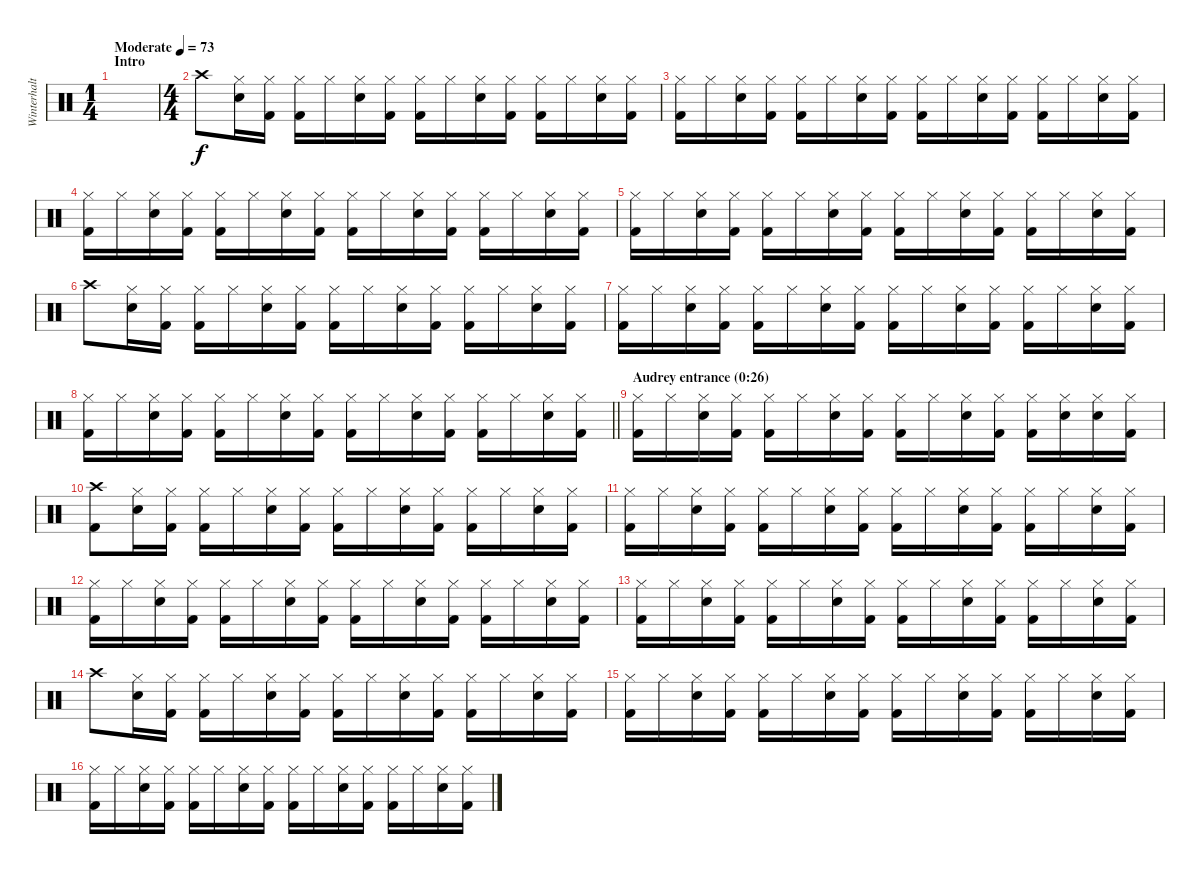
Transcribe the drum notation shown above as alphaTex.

\track ("Winterhalten" "Winterhalt") {instrument percussion}
\staff {score}
\articulation defaults
\ts (1 4)
\section ("" "Intro")
\tempo (73 "Moderate")
\clef neutral
\ks c
|
\ts (4 4)
"Crash high (hit)".8 ("Hi-Hat (closed)" "Snare (hit) 2").16 ("Kick (hit) 2" "Hi-Hat (closed)").16 ("Kick (hit) 2" "Hi-Hat (closed)").16 "Hi-Hat (closed)".16 ("Hi-Hat (closed)" "Snare (hit) 2").16 ("Kick (hit) 2" "Hi-Hat (closed)").16 ("Kick (hit) 2" "Hi-Hat (closed)").16 "Hi-Hat (closed)".16 ("Hi-Hat (closed)" "Snare (hit) 2").16 ("Kick (hit) 2" "Hi-Hat (closed)").16 ("Kick (hit) 2" "Hi-Hat (closed)").16 "Hi-Hat (closed)".16 ("Hi-Hat (closed)" "Snare (hit) 2").16 ("Kick (hit) 2" "Hi-Hat (closed)").16 |
("Kick (hit) 2" "Hi-Hat (closed)").16 "Hi-Hat (closed)".16 ("Hi-Hat (closed)" "Snare (hit) 2").16 ("Kick (hit) 2" "Hi-Hat (closed)").16 ("Kick (hit) 2" "Hi-Hat (closed)").16 "Hi-Hat (closed)".16 ("Hi-Hat (closed)" "Snare (hit) 2").16 ("Kick (hit) 2" "Hi-Hat (closed)").16 ("Kick (hit) 2" "Hi-Hat (closed)").16 "Hi-Hat (closed)".16 ("Hi-Hat (closed)" "Snare (hit) 2").16 ("Kick (hit) 2" "Hi-Hat (closed)").16 ("Kick (hit) 2" "Hi-Hat (closed)").16 "Hi-Hat (closed)".16 ("Hi-Hat (closed)" "Snare (hit) 2").16 ("Kick (hit) 2" "Hi-Hat (closed)").16 |
("Kick (hit) 2" "Hi-Hat (closed)").16 "Hi-Hat (closed)".16 ("Hi-Hat (closed)" "Snare (hit) 2").16 ("Kick (hit) 2" "Hi-Hat (closed)").16 ("Kick (hit) 2" "Hi-Hat (closed)").16 "Hi-Hat (closed)".16 ("Hi-Hat (closed)" "Snare (hit) 2").16 ("Kick (hit) 2" "Hi-Hat (closed)").16 ("Kick (hit) 2" "Hi-Hat (closed)").16 "Hi-Hat (closed)".16 ("Hi-Hat (closed)" "Snare (hit) 2").16 ("Kick (hit) 2" "Hi-Hat (closed)").16 ("Kick (hit) 2" "Hi-Hat (closed)").16 "Hi-Hat (closed)".16 ("Hi-Hat (closed)" "Snare (hit) 2").16 ("Kick (hit) 2" "Hi-Hat (closed)").16 |
("Kick (hit) 2" "Hi-Hat (closed)").16 "Hi-Hat (closed)".16 ("Hi-Hat (closed)" "Snare (hit) 2").16 ("Kick (hit) 2" "Hi-Hat (closed)").16 ("Kick (hit) 2" "Hi-Hat (closed)").16 "Hi-Hat (closed)".16 ("Hi-Hat (closed)" "Snare (hit) 2").16 ("Kick (hit) 2" "Hi-Hat (closed)").16 ("Kick (hit) 2" "Hi-Hat (closed)").16 "Hi-Hat (closed)".16 ("Hi-Hat (closed)" "Snare (hit) 2").16 ("Kick (hit) 2" "Hi-Hat (closed)").16 ("Kick (hit) 2" "Hi-Hat (closed)").16 "Hi-Hat (closed)".16 ("Hi-Hat (closed)" "Snare (hit) 2").16 ("Kick (hit) 2" "Hi-Hat (closed)").16 |
"Crash high (hit)".8 ("Hi-Hat (closed)" "Snare (hit) 2").16 ("Kick (hit) 2" "Hi-Hat (closed)").16 ("Kick (hit) 2" "Hi-Hat (closed)").16 "Hi-Hat (closed)".16 ("Hi-Hat (closed)" "Snare (hit) 2").16 ("Kick (hit) 2" "Hi-Hat (closed)").16 ("Kick (hit) 2" "Hi-Hat (closed)").16 "Hi-Hat (closed)".16 ("Hi-Hat (closed)" "Snare (hit) 2").16 ("Kick (hit) 2" "Hi-Hat (closed)").16 ("Kick (hit) 2" "Hi-Hat (closed)").16 "Hi-Hat (closed)".16 ("Hi-Hat (closed)" "Snare (hit) 2").16 ("Kick (hit) 2" "Hi-Hat (closed)").16 |
("Kick (hit) 2" "Hi-Hat (closed)").16 "Hi-Hat (closed)".16 ("Hi-Hat (closed)" "Snare (hit) 2").16 ("Kick (hit) 2" "Hi-Hat (closed)").16 ("Kick (hit) 2" "Hi-Hat (closed)").16 "Hi-Hat (closed)".16 ("Hi-Hat (closed)" "Snare (hit) 2").16 ("Kick (hit) 2" "Hi-Hat (closed)").16 ("Kick (hit) 2" "Hi-Hat (closed)").16 "Hi-Hat (closed)".16 ("Hi-Hat (closed)" "Snare (hit) 2").16 ("Kick (hit) 2" "Hi-Hat (closed)").16 ("Kick (hit) 2" "Hi-Hat (closed)").16 "Hi-Hat (closed)".16 ("Hi-Hat (closed)" "Snare (hit) 2").16 ("Kick (hit) 2" "Hi-Hat (closed)").16 |
\barLineRight lightlight
("Kick (hit) 2" "Hi-Hat (closed)").16 "Hi-Hat (closed)".16 ("Hi-Hat (closed)" "Snare (hit) 2").16 ("Kick (hit) 2" "Hi-Hat (closed)").16 ("Kick (hit) 2" "Hi-Hat (closed)").16 "Hi-Hat (closed)".16 ("Hi-Hat (closed)" "Snare (hit) 2").16 ("Kick (hit) 2" "Hi-Hat (closed)").16 ("Kick (hit) 2" "Hi-Hat (closed)").16 "Hi-Hat (closed)".16 ("Hi-Hat (closed)" "Snare (hit) 2").16 ("Kick (hit) 2" "Hi-Hat (closed)").16 ("Kick (hit) 2" "Hi-Hat (closed)").16 "Hi-Hat (closed)".16 ("Hi-Hat (closed)" "Snare (hit) 2").16 ("Kick (hit) 2" "Hi-Hat (closed)").16 |
\section ("" "Audrey entrance (0:26)")
("Kick (hit) 2" "Hi-Hat (closed)").16 "Hi-Hat (closed)".16 ("Hi-Hat (closed)" "Snare (hit) 2").16 ("Kick (hit) 2" "Hi-Hat (closed)").16 ("Kick (hit) 2" "Hi-Hat (closed)").16 "Hi-Hat (closed)".16 ("Hi-Hat (closed)" "Snare (hit) 2").16 ("Kick (hit) 2" "Hi-Hat (closed)").16 ("Kick (hit) 2" "Hi-Hat (closed)").16 "Hi-Hat (closed)".16 ("Hi-Hat (closed)" "Snare (hit) 2").16 ("Kick (hit) 2" "Hi-Hat (closed)").16 ("Kick (hit) 2" "Hi-Hat (closed)").16 ("Hi-Hat (closed)" "Snare (hit) 2").16 ("Hi-Hat (closed)" "Snare (hit) 2").16 ("Kick (hit) 2" "Hi-Hat (closed)").16 |
("Kick (hit) 2" "Crash high (hit)").8 ("Hi-Hat (closed)" "Snare (hit) 2").16 ("Kick (hit) 2" "Hi-Hat (closed)").16 ("Kick (hit) 2" "Hi-Hat (closed)").16 "Hi-Hat (closed)".16 ("Hi-Hat (closed)" "Snare (hit) 2").16 ("Kick (hit) 2" "Hi-Hat (closed)").16 ("Kick (hit) 2" "Hi-Hat (closed)").16 "Hi-Hat (closed)".16 ("Hi-Hat (closed)" "Snare (hit) 2").16 ("Kick (hit) 2" "Hi-Hat (closed)").16 ("Kick (hit) 2" "Hi-Hat (closed)").16 "Hi-Hat (closed)".16 ("Hi-Hat (closed)" "Snare (hit) 2").16 ("Kick (hit) 2" "Hi-Hat (closed)").16 |
("Kick (hit) 2" "Hi-Hat (closed)").16 "Hi-Hat (closed)".16 ("Hi-Hat (closed)" "Snare (hit) 2").16 ("Kick (hit) 2" "Hi-Hat (closed)").16 ("Kick (hit) 2" "Hi-Hat (closed)").16 "Hi-Hat (closed)".16 ("Hi-Hat (closed)" "Snare (hit) 2").16 ("Kick (hit) 2" "Hi-Hat (closed)").16 ("Kick (hit) 2" "Hi-Hat (closed)").16 "Hi-Hat (closed)".16 ("Hi-Hat (closed)" "Snare (hit) 2").16 ("Kick (hit) 2" "Hi-Hat (closed)").16 ("Kick (hit) 2" "Hi-Hat (closed)").16 "Hi-Hat (closed)".16 ("Hi-Hat (closed)" "Snare (hit) 2").16 ("Kick (hit) 2" "Hi-Hat (closed)").16 |
("Kick (hit) 2" "Hi-Hat (closed)").16 "Hi-Hat (closed)".16 ("Hi-Hat (closed)" "Snare (hit) 2").16 ("Kick (hit) 2" "Hi-Hat (closed)").16 ("Kick (hit) 2" "Hi-Hat (closed)").16 "Hi-Hat (closed)".16 ("Hi-Hat (closed)" "Snare (hit) 2").16 ("Kick (hit) 2" "Hi-Hat (closed)").16 ("Kick (hit) 2" "Hi-Hat (closed)").16 "Hi-Hat (closed)".16 ("Hi-Hat (closed)" "Snare (hit) 2").16 ("Kick (hit) 2" "Hi-Hat (closed)").16 ("Kick (hit) 2" "Hi-Hat (closed)").16 "Hi-Hat (closed)".16 ("Hi-Hat (closed)" "Snare (hit) 2").16 ("Kick (hit) 2" "Hi-Hat (closed)").16 |
("Kick (hit) 2" "Hi-Hat (closed)").16 "Hi-Hat (closed)".16 ("Hi-Hat (closed)" "Snare (hit) 2").16 ("Kick (hit) 2" "Hi-Hat (closed)").16 ("Kick (hit) 2" "Hi-Hat (closed)").16 "Hi-Hat (closed)".16 ("Hi-Hat (closed)" "Snare (hit) 2").16 ("Kick (hit) 2" "Hi-Hat (closed)").16 ("Kick (hit) 2" "Hi-Hat (closed)").16 "Hi-Hat (closed)".16 ("Hi-Hat (closed)" "Snare (hit) 2").16 ("Kick (hit) 2" "Hi-Hat (closed)").16 ("Kick (hit) 2" "Hi-Hat (closed)").16 "Hi-Hat (closed)".16 ("Hi-Hat (closed)" "Snare (hit) 2").16 ("Kick (hit) 2" "Hi-Hat (closed)").16 |
"Crash high (hit)".8 ("Hi-Hat (closed)" "Snare (hit) 2").16 ("Kick (hit) 2" "Hi-Hat (closed)").16 ("Kick (hit) 2" "Hi-Hat (closed)").16 "Hi-Hat (closed)".16 ("Hi-Hat (closed)" "Snare (hit) 2").16 ("Kick (hit) 2" "Hi-Hat (closed)").16 ("Kick (hit) 2" "Hi-Hat (closed)").16 "Hi-Hat (closed)".16 ("Hi-Hat (closed)" "Snare (hit) 2").16 ("Kick (hit) 2" "Hi-Hat (closed)").16 ("Kick (hit) 2" "Hi-Hat (closed)").16 "Hi-Hat (closed)".16 ("Hi-Hat (closed)" "Snare (hit) 2").16 ("Kick (hit) 2" "Hi-Hat (closed)").16 |
("Kick (hit) 2" "Hi-Hat (closed)").16 "Hi-Hat (closed)".16 ("Hi-Hat (closed)" "Snare (hit) 2").16 ("Kick (hit) 2" "Hi-Hat (closed)").16 ("Kick (hit) 2" "Hi-Hat (closed)").16 "Hi-Hat (closed)".16 ("Hi-Hat (closed)" "Snare (hit) 2").16 ("Kick (hit) 2" "Hi-Hat (closed)").16 ("Kick (hit) 2" "Hi-Hat (closed)").16 "Hi-Hat (closed)".16 ("Hi-Hat (closed)" "Snare (hit) 2").16 ("Kick (hit) 2" "Hi-Hat (closed)").16 ("Kick (hit) 2" "Hi-Hat (closed)").16 "Hi-Hat (closed)".16 ("Hi-Hat (closed)" "Snare (hit) 2").16 ("Kick (hit) 2" "Hi-Hat (closed)").16 |
("Kick (hit) 2" "Hi-Hat (closed)").16 "Hi-Hat (closed)".16 ("Hi-Hat (closed)" "Snare (hit) 2").16 ("Kick (hit) 2" "Hi-Hat (closed)").16 ("Kick (hit) 2" "Hi-Hat (closed)").16 "Hi-Hat (closed)".16 ("Hi-Hat (closed)" "Snare (hit) 2").16 ("Kick (hit) 2" "Hi-Hat (closed)").16 ("Kick (hit) 2" "Hi-Hat (closed)").16 "Hi-Hat (closed)".16 ("Hi-Hat (closed)" "Snare (hit) 2").16 ("Kick (hit) 2" "Hi-Hat (closed)").16 ("Kick (hit) 2" "Hi-Hat (closed)").16 "Hi-Hat (closed)".16 ("Hi-Hat (closed)" "Snare (hit) 2").16 ("Kick (hit) 2" "Hi-Hat (closed)").16
